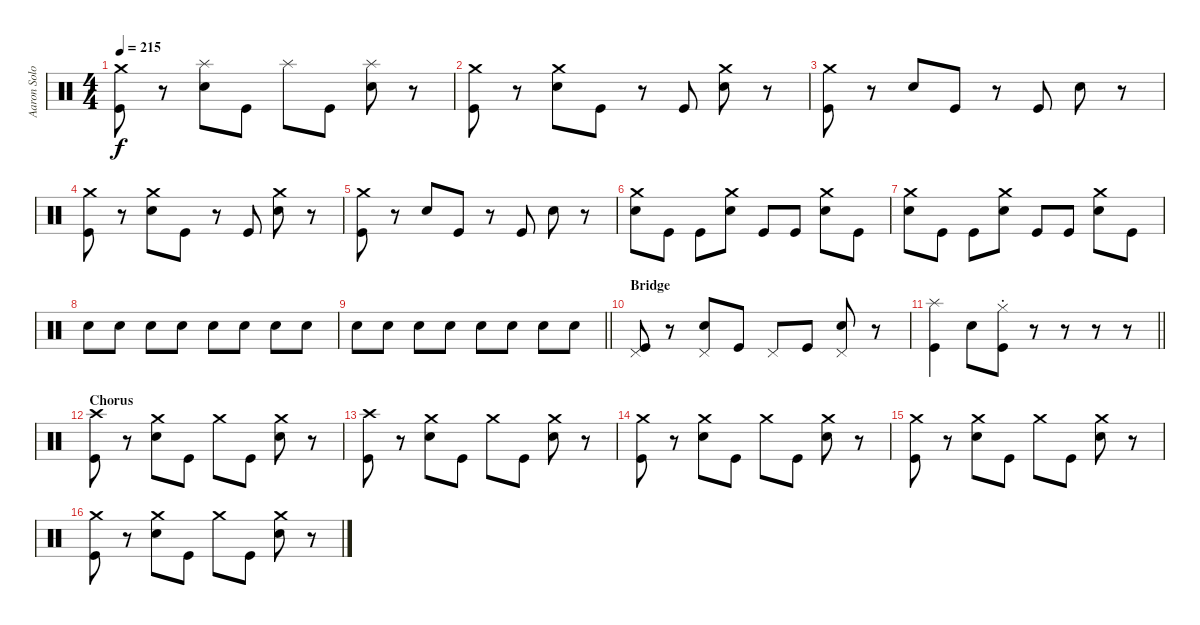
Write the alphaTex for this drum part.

\track ("Aaron Solowoniuk" "Aaron Solo") {instrument percussion}
\staff {score}
\articulation defaults
\ts (4 4)
\tempo 215
\clef neutral
\ks c
("Crash medium (hit)" "Kick (hit)").8{dy f} r.8 ("Splash (hit)" "Electric Snare (hit)").8 "Kick (hit)".8 "Splash (hit)".8 "Kick (hit)".8 ("Splash (hit)" "Electric Snare (hit)").8 r.8 |
("Crash medium (hit)" "Kick (hit)").8 r.8 ("Crash medium (hit)" "Electric Snare (hit)").8 "Kick (hit)".8 r.8 "Kick (hit)".8 ("Crash medium (hit)" "Electric Snare (hit)").8 r.8 |
("Crash medium (hit)" "Kick (hit)").8 r.8 "Electric Snare (hit)".8 "Kick (hit)".8 r.8 "Kick (hit)".8 "Electric Snare (hit)".8 r.8 |
("Crash medium (hit)" "Kick (hit)").8 r.8 ("Crash medium (hit)" "Electric Snare (hit)").8 "Kick (hit)".8 r.8 "Kick (hit)".8 ("Crash medium (hit)" "Electric Snare (hit)").8 r.8 |
("Crash medium (hit)" "Kick (hit)").8 r.8 "Electric Snare (hit)".8 "Kick (hit)".8 r.8 "Kick (hit)".8 "Electric Snare (hit)".8 r.8 |
("Crash medium (hit)" "Electric Snare (hit)").8 "Kick (hit)".8 "Kick (hit)".8 ("Crash medium (hit)" "Electric Snare (hit)").8 "Kick (hit)".8 "Kick (hit)".8 ("Crash medium (hit)" "Electric Snare (hit)").8 "Kick (hit)".8 |
("Crash medium (hit)" "Electric Snare (hit)").8 "Kick (hit)".8 "Kick (hit)".8 ("Crash medium (hit)" "Electric Snare (hit)").8 "Kick (hit)".8 "Kick (hit)".8 ("Crash medium (hit)" "Electric Snare (hit)").8 "Kick (hit)".8 |
"Electric Snare (hit)".8 "Electric Snare (hit)".8 "Electric Snare (hit)".8 "Electric Snare (hit)".8 "Electric Snare (hit)".8 "Electric Snare (hit)".8 "Electric Snare (hit)".8 "Electric Snare (hit)".8 |
\barLineRight lightlight "Electric Snare (hit)".8 "Electric Snare (hit)".8 "Electric Snare (hit)".8 "Electric Snare (hit)".8 "Electric Snare (hit)".8 "Electric Snare (hit)".8 "Electric Snare (hit)".8 "Electric Snare (hit)".8
|
\section ("" "Bridge")
("Pedal Hi-Hat (hit)" "Kick (hit)").8 r.8 ("Pedal Hi-Hat (hit)" "Electric Snare (hit)").8 "Kick (hit)".8 "Pedal Hi-Hat (hit)".8 "Kick (hit)".8 ("Pedal Hi-Hat (hit)" "Electric Snare (hit)").8 r.8 |
\barLineRight lightlight
("Splash (hit)" "Kick (hit)").4 "Electric Snare (hit)".8 ("Hi-Hat (closed)"{st} "Kick (hit)").8 r.8 r.8 r.8 r.8 |
\section ("" "Chorus")
("Crash high (hit)" "Kick (hit)").8 r.8 ("Crash medium (hit)" "Electric Snare (hit)").8 "Kick (hit)".8 "Crash medium (hit)".8 "Kick (hit)".8 ("Crash medium (hit)" "Electric Snare (hit)").8 r.8 |
("Crash high (hit)" "Kick (hit)").8 r.8 ("Crash medium (hit)" "Electric Snare (hit)").8 "Kick (hit)".8 "Crash medium (hit)".8 "Kick (hit)".8 ("Crash medium (hit)" "Electric Snare (hit)").8 r.8 |
("Crash medium (hit)" "Kick (hit)").8 r.8 ("Crash medium (hit)" "Electric Snare (hit)").8 "Kick (hit)".8 "Crash medium (hit)".8 "Kick (hit)".8 ("Crash medium (hit)" "Electric Snare (hit)").8 r.8 |
("Crash medium (hit)" "Kick (hit)").8 r.8 ("Crash medium (hit)" "Electric Snare (hit)").8 "Kick (hit)".8 "Crash medium (hit)".8 "Kick (hit)".8 ("Crash medium (hit)" "Electric Snare (hit)").8 r.8 |
("Crash medium (hit)" "Kick (hit)").8 r.8 ("Crash medium (hit)" "Electric Snare (hit)").8 "Kick (hit)".8 "Crash medium (hit)".8 "Kick (hit)".8 ("Crash medium (hit)" "Electric Snare (hit)").8 r.8
